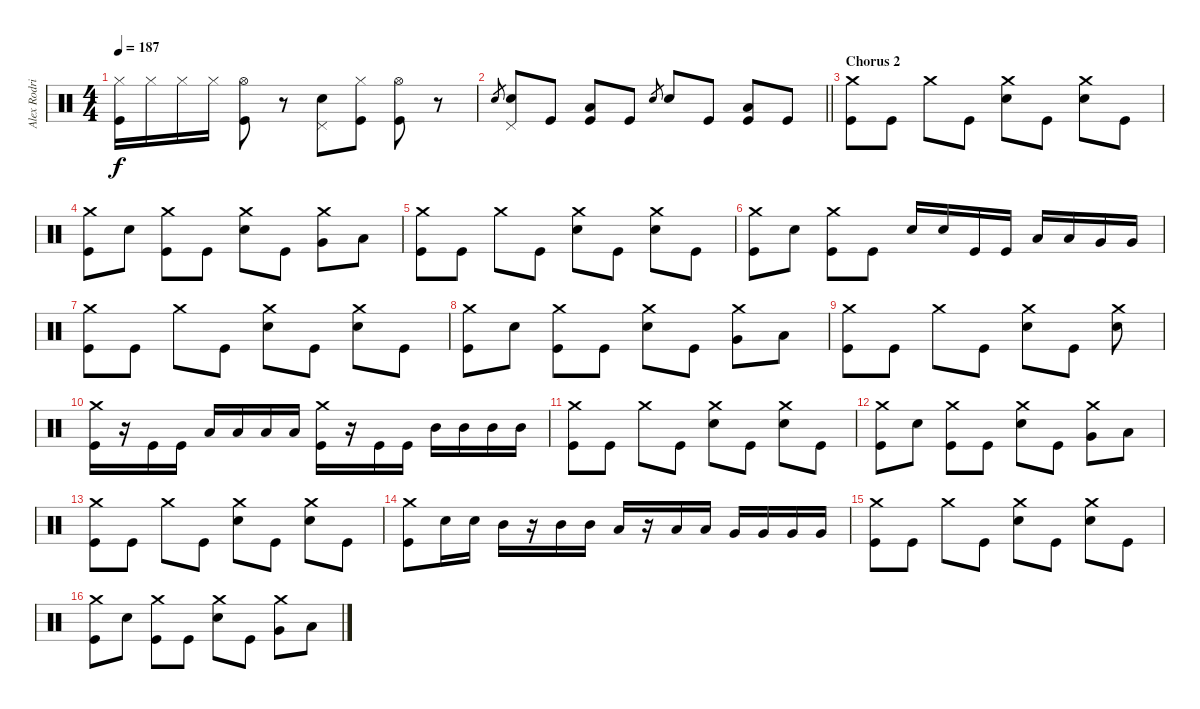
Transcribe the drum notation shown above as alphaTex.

\track ("Alex Rodriguez" "Alex Rodri") {instrument percussion}
\staff {score}
\articulation defaults
\ts (4 4)
\tempo 187
\clef neutral
\ks c
("Hi-Hat (closed)" "Kick (hit)").16{dy f} "Hi-Hat (closed)".16 "Hi-Hat (closed)".16 "Hi-Hat (closed)".16 ("Hi-Hat (open)" "Kick (hit)").8 r.8 ("Pedal Hi-Hat (hit)" "Electric Snare (hit)").8 ("Hi-Hat (closed)" "Kick (hit)").8 ("Hi-Hat (open)" "Kick (hit)").8 r.8 |
\barLineRight lightlight "Electric Snare (hit)".8{gr}
("Pedal Hi-Hat (hit)" "Electric Snare (hit)").8 "Kick (hit)".8 ("Low Tom (hit)" "Kick (hit)").8 "Kick (hit)".8 "Electric Snare (hit)".8{gr} "Electric Snare (hit)".8 "Kick (hit)".8 ("Low Tom (hit)" "Kick (hit)").8 "Kick (hit)".8 |
\section ("" "Chorus 2")
("Crash medium (hit)" "Kick (hit)").8 "Kick (hit)".8 "Crash medium (hit)".8 "Kick (hit)".8 ("Crash medium (hit)" "Electric Snare (hit)").8 "Kick (hit)".8 ("Crash medium (hit)" "Electric Snare (hit)").8 "Kick (hit)".8 |
("Crash medium (hit)" "Kick (hit)").8 "Electric Snare (hit)".8 ("Crash medium (hit)" "Kick (hit)").8 "Kick (hit)".8 ("Crash medium (hit)" "Electric Snare (hit)").8 "Kick (hit)".8 ("Crash medium (hit)" "Very Low Tom (hit)").8 "Low Floor Tom (hit)".8 |
("Crash medium (hit)" "Kick (hit)").8 "Kick (hit)".8 "Crash medium (hit)".8 "Kick (hit)".8 ("Crash medium (hit)" "Electric Snare (hit)").8 "Kick (hit)".8 ("Crash medium (hit)" "Electric Snare (hit)").8 "Kick (hit)".8 |
("Crash medium (hit)" "Kick (hit)").8 "Electric Snare (hit)".8 ("Crash medium (hit)" "Kick (hit)").8 "Kick (hit)".8 "Electric Snare (hit)".16 "Electric Snare (hit)".16 "Kick (hit)".16 "Kick (hit)".16 "Low Tom (hit)".16 "Low Tom (hit)".16 "Very Low Tom (hit)".16 "Very Low Tom (hit)".16 |
("Crash medium (hit)" "Kick (hit)").8 "Kick (hit)".8 "Crash medium (hit)".8 "Kick (hit)".8 ("Crash medium (hit)" "Electric Snare (hit)").8 "Kick (hit)".8 ("Crash medium (hit)" "Electric Snare (hit)").8 "Kick (hit)".8 |
("Crash medium (hit)" "Kick (hit)").8 "Electric Snare (hit)".8 ("Crash medium (hit)" "Kick (hit)").8 "Kick (hit)".8 ("Crash medium (hit)" "Electric Snare (hit)").8 "Kick (hit)".8 ("Crash medium (hit)" "Very Low Tom (hit)").8 "Low Floor Tom (hit)".8 |
("Crash medium (hit)" "Kick (hit)").8 "Kick (hit)".8 "Crash medium (hit)".8 "Kick (hit)".8 ("Crash medium (hit)" "Electric Snare (hit)").8 "Kick (hit)".8 ("Crash medium (hit)" "Electric Snare (hit)").8 |
("Crash medium (hit)" "Kick (hit)").16 r.16 "Kick (hit)".16 "Kick (hit)".16 "Low Tom (hit)".16 "Low Tom (hit)".16 "Low Tom (hit)".16 "Low Tom (hit)".16 ("Crash medium (hit)" "Kick (hit)").16 r.16 "Kick (hit)".16 "Kick (hit)".16 "Mid Tom (hit)".16 "Mid Tom (hit)".16 "Mid Tom (hit)".16 "Mid Tom (hit)".16 |
("Crash medium (hit)" "Kick (hit)").8 "Kick (hit)".8 "Crash medium (hit)".8 "Kick (hit)".8 ("Crash medium (hit)" "Electric Snare (hit)").8 "Kick (hit)".8 ("Crash medium (hit)" "Electric Snare (hit)").8 "Kick (hit)".8 |
("Crash medium (hit)" "Kick (hit)").8 "Electric Snare (hit)".8 ("Crash medium (hit)" "Kick (hit)").8 "Kick (hit)".8 ("Crash medium (hit)" "Electric Snare (hit)").8 "Kick (hit)".8 ("Crash medium (hit)" "Very Low Tom (hit)").8 "Low Floor Tom (hit)".8 |
("Crash medium (hit)" "Kick (hit)").8 "Kick (hit)".8 "Crash medium (hit)".8 "Kick (hit)".8 ("Crash medium (hit)" "Electric Snare (hit)").8 "Kick (hit)".8 ("Crash medium (hit)" "Electric Snare (hit)").8 "Kick (hit)".8 |
("Crash medium (hit)" "Kick (hit)").8 "Electric Snare (hit)".16 "Electric Snare (hit)".16 "Mid Tom (hit)".16 r.16 "Mid Tom (hit)".16 "Mid Tom (hit)".16 "Low Tom (hit)".16 r.16 "Low Tom (hit)".16 "Low Tom (hit)".16 "Very Low Tom (hit)".16 "Very Low Tom (hit)".16 "Very Low Tom (hit)".16 "Very Low Tom (hit)".16 |
("Crash medium (hit)" "Kick (hit)").8 "Kick (hit)".8 "Crash medium (hit)".8 "Kick (hit)".8 ("Crash medium (hit)" "Electric Snare (hit)").8 "Kick (hit)".8 ("Crash medium (hit)" "Electric Snare (hit)").8 "Kick (hit)".8 |
("Crash medium (hit)" "Kick (hit)").8 "Electric Snare (hit)".8 ("Crash medium (hit)" "Kick (hit)").8 "Kick (hit)".8 ("Crash medium (hit)" "Electric Snare (hit)").8 "Kick (hit)".8 ("Crash medium (hit)" "Very Low Tom (hit)").8 "Low Floor Tom (hit)".8
